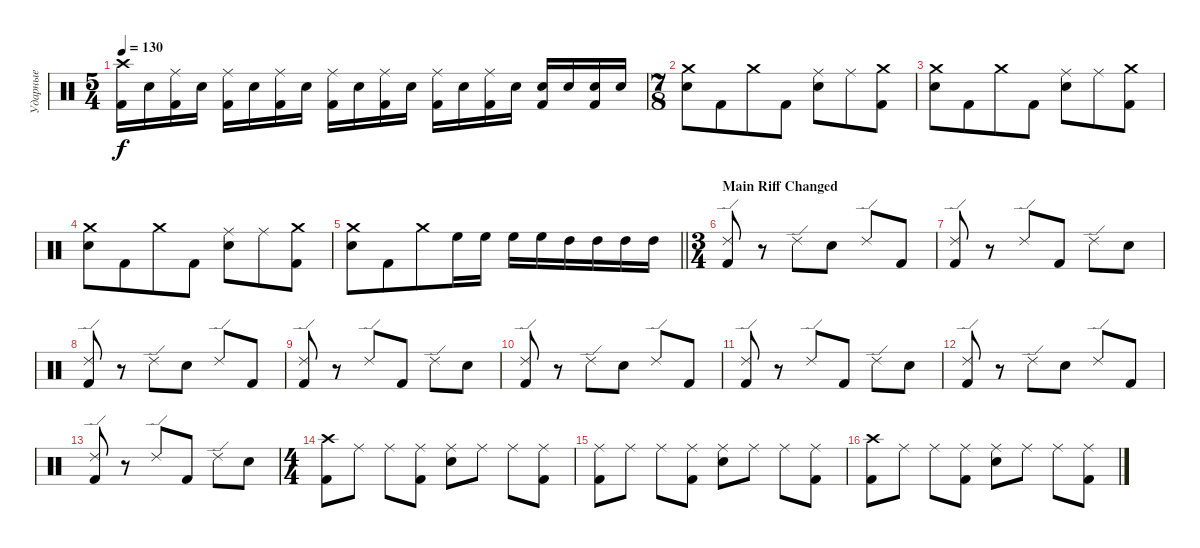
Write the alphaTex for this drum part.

\track ("Ударные" "Ударные") {instrument percussion}
\staff {score}
\articulation defaults
\ts (5 4)
\tempo 130
\clef neutral
\ks c
("Crash high (hit)" "Kick (hit) 2").16{dy f} "Electric Snare (hit)".16 ("Ride (middle)" "Kick (hit) 2").16 "Electric Snare (hit)".16 ("Ride (middle)" "Kick (hit) 2").16 "Electric Snare (hit)".16 ("Ride (middle)" "Kick (hit) 2").16 "Electric Snare (hit)".16 ("Ride (middle)" "Kick (hit) 2").16 "Electric Snare (hit)".16 ("Ride (middle)" "Kick (hit) 2").16 "Electric Snare (hit)".16 ("Ride (middle)" "Kick (hit) 2").16 "Electric Snare (hit)".16 ("Ride (middle)" "Kick (hit) 2").16 "Electric Snare (hit)".16 ("Electric Snare (hit)" "Kick (hit) 2").16 "Electric Snare (hit)".16 ("Electric Snare (hit)" "Kick (hit) 2").16 "Electric Snare (hit)".16 |
\ts (7 8)
("Crash medium (hit)" "Electric Snare (hit)").8 "Kick (hit) 2".8 "Crash medium (hit)".8 "Kick (hit) 2".8 ("Ride (middle)" "Electric Snare (hit)").8 "Ride (middle)".8 ("Crash medium (hit)" "Kick (hit) 2").8 |
("Crash medium (hit)" "Electric Snare (hit)").8 "Kick (hit) 2".8 "Crash medium (hit)".8 "Kick (hit) 2".8 ("Ride (middle)" "Electric Snare (hit)").8 "Ride (middle)".8 ("Crash medium (hit)" "Kick (hit) 2").8 |
("Crash medium (hit)" "Electric Snare (hit)").8 "Kick (hit) 2".8 "Crash medium (hit)".8 "Kick (hit) 2".8 ("Ride (middle)" "Electric Snare (hit)").8 "Ride (middle)".8 ("Crash medium (hit)" "Kick (hit) 2").8 |
\barLineRight lightlight
("Crash medium (hit)" "Electric Snare (hit)").8 "Kick (hit) 2".8 "Crash medium (hit)".8 "High Floor Tom (hit)".16 "High Floor Tom (hit)".16 "High Floor Tom (hit)".16 "High Floor Tom (hit)".16 "High Tom (hit)".16 "High Tom (hit)".16 "High Tom (hit)".16 "High Tom (hit)".16 |
\ts (3 4)
\section ("" "Main Riff Changed")
("Ride (edge) 2" "Kick (hit) 2").8 r.8 "Ride (edge) 2".8 "Electric Snare (hit)".8 "Ride (edge) 2".8 "Kick (hit) 2".8 |
("Ride (edge) 2" "Kick (hit) 2").8 r.8 "Ride (edge) 2".8 "Kick (hit) 2".8 "Ride (edge) 2".8 "Electric Snare (hit)".8 |
("Ride (edge) 2" "Kick (hit) 2").8 r.8 "Ride (edge) 2".8 "Electric Snare (hit)".8 "Ride (edge) 2".8 "Kick (hit) 2".8 |
("Ride (edge) 2" "Kick (hit) 2").8 r.8 "Ride (edge) 2".8 "Kick (hit) 2".8 "Ride (edge) 2".8 "Electric Snare (hit)".8 |
("Ride (edge) 2" "Kick (hit) 2").8 r.8 "Ride (edge) 2".8 "Electric Snare (hit)".8 "Ride (edge) 2".8 "Kick (hit) 2".8 |
("Ride (edge) 2" "Kick (hit) 2").8 r.8 "Ride (edge) 2".8 "Kick (hit) 2".8 "Ride (edge) 2".8 "Electric Snare (hit)".8 |
("Ride (edge) 2" "Kick (hit) 2").8 r.8 "Ride (edge) 2".8 "Electric Snare (hit)".8 "Ride (edge) 2".8 "Kick (hit) 2".8 |
("Ride (edge) 2" "Kick (hit) 2").8 r.8 "Ride (edge) 2".8 "Kick (hit) 2".8 "Ride (edge) 2".8 "Electric Snare (hit)".8 |
\ts (4 4)
("Crash high (hit)" "Kick (hit) 2").8 "Ride (middle)".8 "Ride (middle)".8 ("Ride (middle)" "Kick (hit) 2").8 ("Ride (middle)" "Electric Snare (hit)").8 "Ride (middle)".8 "Ride (middle)".8 ("Ride (middle)" "Kick (hit) 2").8 |
("Ride (middle)" "Kick (hit) 2").8 "Ride (middle)".8 "Ride (middle)".8 ("Ride (middle)" "Kick (hit) 2").8 ("Ride (middle)" "Electric Snare (hit)").8 "Ride (middle)".8 "Ride (middle)".8 ("Ride (middle)" "Kick (hit) 2").8 |
("Crash high (hit)" "Kick (hit) 2").8 "Ride (middle)".8 "Ride (middle)".8 ("Ride (middle)" "Kick (hit) 2").8 ("Ride (middle)" "Electric Snare (hit)").8 "Ride (middle)".8 "Ride (middle)".8 ("Ride (middle)" "Kick (hit) 2").8
